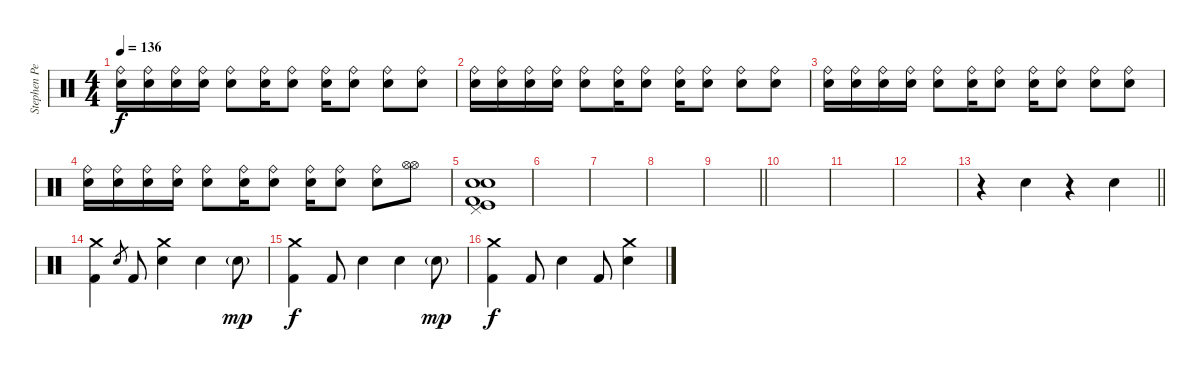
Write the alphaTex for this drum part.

\track ("Stephen Perkins (Drums)" "Stephen Pe") {instrument percussion}
\staff {score}
\articulation defaults
\ts (4 4)
\tempo 136
\clef neutral
\ks c
("Metronome (bell)" "Ride (bell)").16{dy f volume 14} ("Metronome (bell)" "Ride (bell)").16 ("Metronome (bell)" "Ride (bell)").16 ("Metronome (bell)" "Ride (bell)").16 ("Metronome (bell)" "Ride (bell)").8 ("Metronome (bell)" "Ride (bell)").16 ("Metronome (bell)" "Ride (bell)").8 ("Metronome (bell)" "Ride (bell)").16 ("Metronome (bell)" "Ride (bell)").8 ("Metronome (bell)" "Ride (bell)").8 ("Metronome (bell)" "Ride (bell)").8 |
("Metronome (bell)" "Ride (bell)").16 ("Metronome (bell)" "Ride (bell)").16 ("Metronome (bell)" "Ride (bell)").16 ("Metronome (bell)" "Ride (bell)").16 ("Metronome (bell)" "Ride (bell)").8 ("Metronome (bell)" "Ride (bell)").16 ("Metronome (bell)" "Ride (bell)").8 ("Metronome (bell)" "Ride (bell)").16 ("Metronome (bell)" "Ride (bell)").8 ("Metronome (bell)" "Ride (bell)").8 ("Metronome (bell)" "Ride (bell)").8 |
("Metronome (bell)" "Ride (bell)").16 ("Metronome (bell)" "Ride (bell)").16 ("Metronome (bell)" "Ride (bell)").16 ("Metronome (bell)" "Ride (bell)").16 ("Metronome (bell)" "Ride (bell)").8 ("Metronome (bell)" "Ride (bell)").16 ("Metronome (bell)" "Ride (bell)").8 ("Metronome (bell)" "Ride (bell)").16 ("Metronome (bell)" "Ride (bell)").8 ("Metronome (bell)" "Ride (bell)").8 ("Metronome (bell)" "Ride (bell)").8 |
("Metronome (bell)" "Ride (bell)").16 ("Metronome (bell)" "Ride (bell)").16 ("Metronome (bell)" "Ride (bell)").16 ("Metronome (bell)" "Ride (bell)").16 ("Metronome (bell)" "Ride (bell)").8 ("Metronome (bell)" "Ride (bell)").16 ("Metronome (bell)" "Ride (bell)").8 ("Metronome (bell)" "Ride (bell)").16 ("Metronome (bell)" "Ride (bell)").8 ("Metronome (bell)" "Ride (bell)").8 ("Hi-Hat (open)" "Hi-Hat (open)").8 |
("Electric Snare (hit)" "Snare (hit) 2" "Pedal Hi-Hat (hit)" "Kick (hit) 2" "Kick (hit)").1 |
|
|
|
\barLineRight lightlight
|
|
|
|
\barLineRight lightlight
r.4 "Electric Snare (hit)".4 r.4 "Electric Snare (hit)".4 |
("Crash medium (hit)" "Kick (hit) 2").4 "Electric Snare (hit)".8{gr} "Kick (hit) 2".8 ("Crash medium (hit)" "Electric Snare (hit)").4 "Electric Snare (hit)".4 "Electric Snare (hit)"{g}.8{dy mp} |
("Crash medium (hit)" "Kick (hit) 2").4{dy f} "Kick (hit) 2".8 "Electric Snare (hit)".4 "Electric Snare (hit)".4 "Electric Snare (hit)"{g}.8{dy mp} |
("Crash medium (hit)" "Kick (hit) 2").4{dy f} "Kick (hit) 2".8 "Electric Snare (hit)".4 "Kick (hit) 2".8 ("Crash medium (hit)" "Electric Snare (hit)").4
